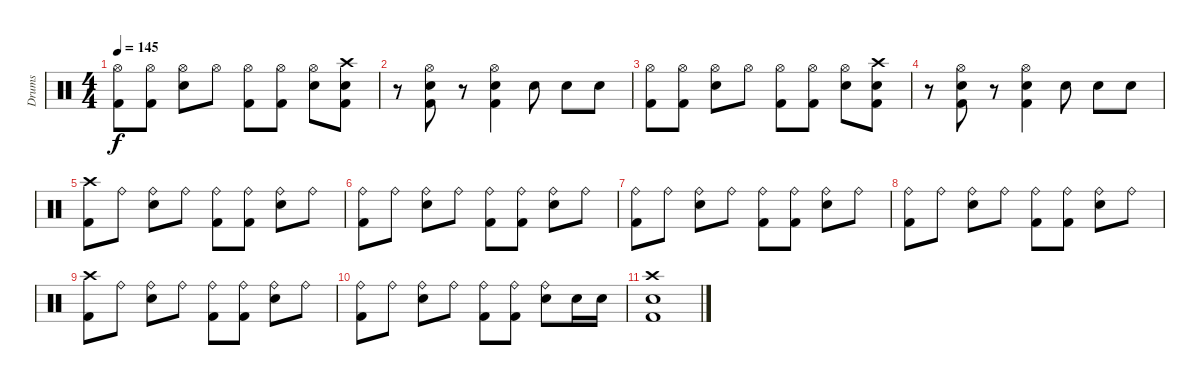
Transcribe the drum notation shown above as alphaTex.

\track ("Drums" "Drums") {instrument percussion}
\staff {score}
\articulation defaults
\ts (4 4)
\tempo 145
\clef neutral
\ks c
("Hi-Hat (open)" "Kick (hit) 2").8{dy f} ("Hi-Hat (open)" "Kick (hit) 2").8 ("Hi-Hat (open)" "Electric Snare (hit)").8 "Hi-Hat (open)".8 ("Hi-Hat (open)" "Kick (hit) 2").8 ("Hi-Hat (open)" "Kick (hit) 2").8 ("Hi-Hat (open)" "Electric Snare (hit)").8 ("Crash high (hit)" "Electric Snare (hit)" "Kick (hit) 2").8 |
r.8 ("Hi-Hat (open)" "Electric Snare (hit)" "Kick (hit) 2").8 r.8 ("Hi-Hat (open)" "Electric Snare (hit)" "Kick (hit) 2").4 "Electric Snare (hit)".8 "Electric Snare (hit)".8 "Electric Snare (hit)".8 |
("Hi-Hat (open)" "Kick (hit) 2").8 ("Hi-Hat (open)" "Kick (hit) 2").8 ("Hi-Hat (open)" "Electric Snare (hit)").8 "Hi-Hat (open)".8 ("Hi-Hat (open)" "Kick (hit) 2").8 ("Hi-Hat (open)" "Kick (hit) 2").8 ("Hi-Hat (open)" "Electric Snare (hit)").8 ("Crash high (hit)" "Electric Snare (hit)" "Kick (hit) 2").8 |
r.8 ("Hi-Hat (open)" "Electric Snare (hit)" "Kick (hit) 2").8 r.8 ("Hi-Hat (open)" "Electric Snare (hit)" "Kick (hit) 2").4 "Electric Snare (hit)".8 "Electric Snare (hit)".8 "Electric Snare (hit)".8 |
("Crash high (hit)" "Kick (hit) 2").8 "Ride (bell)".8 ("Ride (bell)" "Electric Snare (hit)").8 "Ride (bell)".8 ("Ride (bell)" "Kick (hit) 2").8 ("Ride (bell)" "Kick (hit) 2").8 ("Ride (bell)" "Electric Snare (hit)").8 "Ride (bell)".8 |
("Ride (bell)" "Kick (hit) 2").8 "Ride (bell)".8 ("Ride (bell)" "Electric Snare (hit)").8 "Ride (bell)".8 ("Ride (bell)" "Kick (hit) 2").8 ("Ride (bell)" "Kick (hit) 2").8 ("Ride (bell)" "Electric Snare (hit)").8 "Ride (bell)".8 |
("Ride (bell)" "Kick (hit) 2").8 "Ride (bell)".8 ("Ride (bell)" "Electric Snare (hit)").8 "Ride (bell)".8 ("Ride (bell)" "Kick (hit) 2").8 ("Ride (bell)" "Kick (hit) 2").8 ("Ride (bell)" "Electric Snare (hit)").8 "Ride (bell)".8 |
("Ride (bell)" "Kick (hit) 2").8 "Ride (bell)".8 ("Ride (bell)" "Electric Snare (hit)").8 "Ride (bell)".8 ("Ride (bell)" "Kick (hit) 2").8 ("Ride (bell)" "Kick (hit) 2").8 ("Ride (bell)" "Electric Snare (hit)").8 "Ride (bell)".8 |
("Crash high (hit)" "Kick (hit) 2").8 "Ride (bell)".8 ("Ride (bell)" "Electric Snare (hit)").8 "Ride (bell)".8 ("Ride (bell)" "Kick (hit) 2").8 ("Ride (bell)" "Kick (hit) 2").8 ("Ride (bell)" "Electric Snare (hit)").8 "Ride (bell)".8 |
("Ride (bell)" "Kick (hit) 2").8 "Ride (bell)".8 ("Ride (bell)" "Electric Snare (hit)").8 "Ride (bell)".8 ("Ride (bell)" "Kick (hit) 2").8 ("Ride (bell)" "Kick (hit) 2").8 ("Ride (bell)" "Electric Snare (hit)").8 "Electric Snare (hit)".16 "Electric Snare (hit)".16 |
("Crash high (hit)" "Electric Snare (hit)" "Kick (hit) 2").1
